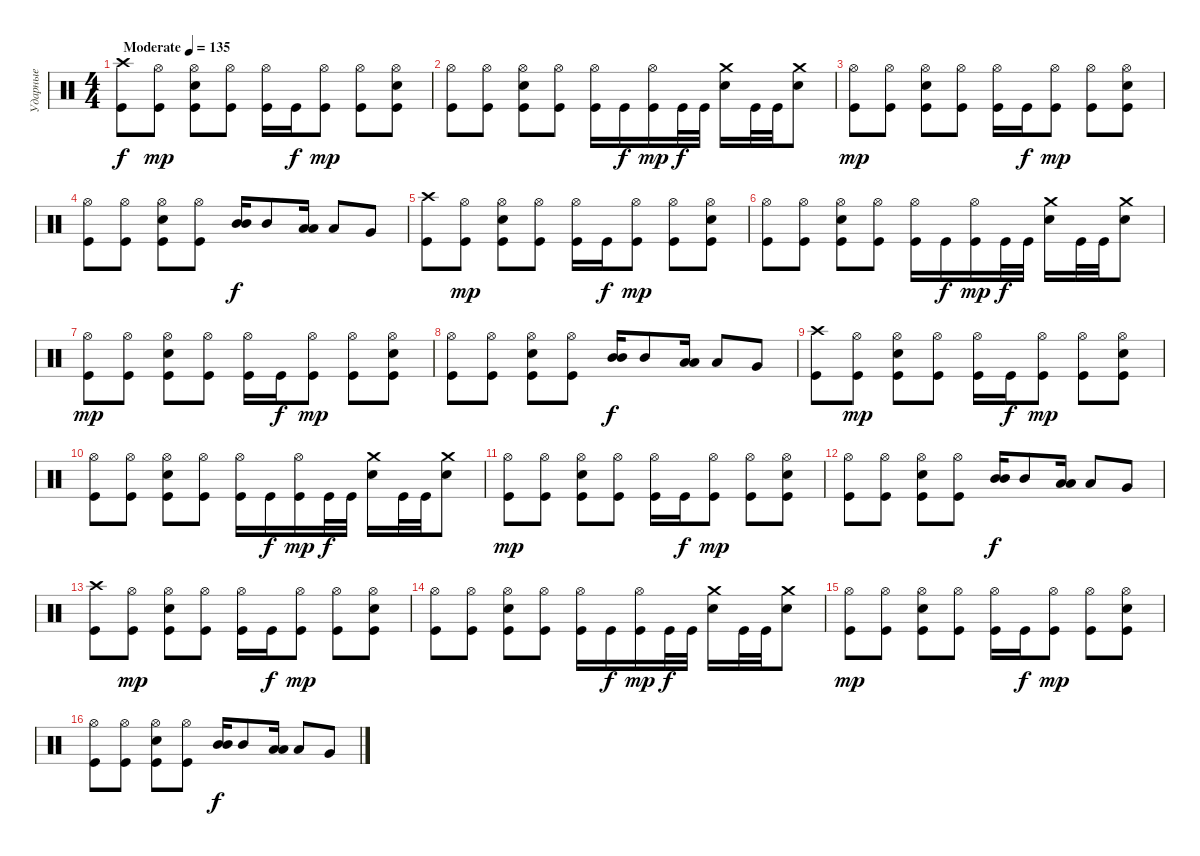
\track ("Ударные" "Ударные") {instrument percussion}
\staff {score}
\articulation defaults
\ts (4 4)
\tempo (135 "Moderate")
\clef neutral
\ks c
("Crash high (hit)" "Kick (hit)").8{dy f} ("Hi-Hat (open)" "Kick (hit)").8{dy mp} ("Hi-Hat (open)" "Electric Snare (hit)" "Kick (hit)").8 ("Hi-Hat (open)" "Kick (hit)").8 ("Hi-Hat (open)" "Kick (hit)").16 "Kick (hit)".16{dy f} ("Hi-Hat (open)" "Kick (hit)").8{dy mp} ("Hi-Hat (open)" "Kick (hit)").8 ("Hi-Hat (open)" "Electric Snare (hit)" "Kick (hit)").8 |
("Hi-Hat (open)" "Kick (hit)").8 ("Hi-Hat (open)" "Kick (hit)").8 ("Hi-Hat (open)" "Electric Snare (hit)" "Kick (hit)").8 ("Hi-Hat (open)" "Kick (hit)").8 ("Hi-Hat (open)" "Kick (hit)").16 "Kick (hit)".16{dy f} ("Hi-Hat (open)" "Kick (hit)").16{dy mp} "Kick (hit)".32{dy f} "Kick (hit)".32 ("Crash medium (hit)" "Electric Snare (hit)").16 "Kick (hit)".32 "Kick (hit)".32 ("Crash medium (hit)" "Electric Snare (hit)").8 |
("Hi-Hat (open)" "Kick (hit)").8{dy mp} ("Hi-Hat (open)" "Kick (hit)").8 ("Hi-Hat (open)" "Electric Snare (hit)" "Kick (hit)").8 ("Hi-Hat (open)" "Kick (hit)").8 ("Hi-Hat (open)" "Kick (hit)").16 "Kick (hit)".16{dy f} ("Hi-Hat (open)" "Kick (hit)").8{dy mp} ("Hi-Hat (open)" "Kick (hit)").8 ("Hi-Hat (open)" "Electric Snare (hit)" "Kick (hit)").8 |
("Hi-Hat (open)" "Kick (hit)").8 ("Hi-Hat (open)" "Kick (hit)").8 ("Hi-Hat (open)" "Electric Snare (hit)" "Kick (hit)").8 ("Hi-Hat (open)" "Kick (hit)").8 ("Mid Tom (hit)" "Mid Tom (hit)").16{bu 60 dy f} "Mid Tom (hit)".8 ("Low Tom (hit)" "Low Tom (hit)").16{bu 60} "Low Tom (hit)".8 "Very Low Tom (hit)".8 |
("Crash high (hit)" "Kick (hit)").8 ("Hi-Hat (open)" "Kick (hit)").8{dy mp} ("Hi-Hat (open)" "Electric Snare (hit)" "Kick (hit)").8 ("Hi-Hat (open)" "Kick (hit)").8 ("Hi-Hat (open)" "Kick (hit)").16 "Kick (hit)".16{dy f} ("Hi-Hat (open)" "Kick (hit)").8{dy mp} ("Hi-Hat (open)" "Kick (hit)").8 ("Hi-Hat (open)" "Electric Snare (hit)" "Kick (hit)").8 |
("Hi-Hat (open)" "Kick (hit)").8 ("Hi-Hat (open)" "Kick (hit)").8 ("Hi-Hat (open)" "Electric Snare (hit)" "Kick (hit)").8 ("Hi-Hat (open)" "Kick (hit)").8 ("Hi-Hat (open)" "Kick (hit)").16 "Kick (hit)".16{dy f} ("Hi-Hat (open)" "Kick (hit)").16{dy mp} "Kick (hit)".32{dy f} "Kick (hit)".32 ("Crash medium (hit)" "Electric Snare (hit)").16 "Kick (hit)".32 "Kick (hit)".32 ("Crash medium (hit)" "Electric Snare (hit)").8 |
("Hi-Hat (open)" "Kick (hit)").8{dy mp} ("Hi-Hat (open)" "Kick (hit)").8 ("Hi-Hat (open)" "Electric Snare (hit)" "Kick (hit)").8 ("Hi-Hat (open)" "Kick (hit)").8 ("Hi-Hat (open)" "Kick (hit)").16 "Kick (hit)".16{dy f} ("Hi-Hat (open)" "Kick (hit)").8{dy mp} ("Hi-Hat (open)" "Kick (hit)").8 ("Hi-Hat (open)" "Electric Snare (hit)" "Kick (hit)").8 |
("Hi-Hat (open)" "Kick (hit)").8 ("Hi-Hat (open)" "Kick (hit)").8 ("Hi-Hat (open)" "Electric Snare (hit)" "Kick (hit)").8 ("Hi-Hat (open)" "Kick (hit)").8 ("Mid Tom (hit)" "Mid Tom (hit)").16{bu 60 dy f} "Mid Tom (hit)".8 ("Low Tom (hit)" "Low Tom (hit)").16{bu 60} "Low Tom (hit)".8 "Very Low Tom (hit)".8 |
("Crash high (hit)" "Kick (hit)").8 ("Hi-Hat (open)" "Kick (hit)").8{dy mp} ("Hi-Hat (open)" "Electric Snare (hit)" "Kick (hit)").8 ("Hi-Hat (open)" "Kick (hit)").8 ("Hi-Hat (open)" "Kick (hit)").16 "Kick (hit)".16{dy f} ("Hi-Hat (open)" "Kick (hit)").8{dy mp} ("Hi-Hat (open)" "Kick (hit)").8 ("Hi-Hat (open)" "Electric Snare (hit)" "Kick (hit)").8 |
("Hi-Hat (open)" "Kick (hit)").8 ("Hi-Hat (open)" "Kick (hit)").8 ("Hi-Hat (open)" "Electric Snare (hit)" "Kick (hit)").8 ("Hi-Hat (open)" "Kick (hit)").8 ("Hi-Hat (open)" "Kick (hit)").16 "Kick (hit)".16{dy f} ("Hi-Hat (open)" "Kick (hit)").16{dy mp} "Kick (hit)".32{dy f} "Kick (hit)".32 ("Crash medium (hit)" "Electric Snare (hit)").16 "Kick (hit)".32 "Kick (hit)".32 ("Crash medium (hit)" "Electric Snare (hit)").8 |
("Hi-Hat (open)" "Kick (hit)").8{dy mp} ("Hi-Hat (open)" "Kick (hit)").8 ("Hi-Hat (open)" "Electric Snare (hit)" "Kick (hit)").8 ("Hi-Hat (open)" "Kick (hit)").8 ("Hi-Hat (open)" "Kick (hit)").16 "Kick (hit)".16{dy f} ("Hi-Hat (open)" "Kick (hit)").8{dy mp} ("Hi-Hat (open)" "Kick (hit)").8 ("Hi-Hat (open)" "Electric Snare (hit)" "Kick (hit)").8 |
("Hi-Hat (open)" "Kick (hit)").8 ("Hi-Hat (open)" "Kick (hit)").8 ("Hi-Hat (open)" "Electric Snare (hit)" "Kick (hit)").8 ("Hi-Hat (open)" "Kick (hit)").8 ("Mid Tom (hit)" "Mid Tom (hit)").16{bu 60 dy f} "Mid Tom (hit)".8 ("Low Tom (hit)" "Low Tom (hit)").16{bu 60} "Low Tom (hit)".8 "Very Low Tom (hit)".8 |
("Crash high (hit)" "Kick (hit)").8 ("Hi-Hat (open)" "Kick (hit)").8{dy mp} ("Hi-Hat (open)" "Electric Snare (hit)" "Kick (hit)").8 ("Hi-Hat (open)" "Kick (hit)").8 ("Hi-Hat (open)" "Kick (hit)").16 "Kick (hit)".16{dy f} ("Hi-Hat (open)" "Kick (hit)").8{dy mp} ("Hi-Hat (open)" "Kick (hit)").8 ("Hi-Hat (open)" "Electric Snare (hit)" "Kick (hit)").8 |
("Hi-Hat (open)" "Kick (hit)").8 ("Hi-Hat (open)" "Kick (hit)").8 ("Hi-Hat (open)" "Electric Snare (hit)" "Kick (hit)").8 ("Hi-Hat (open)" "Kick (hit)").8 ("Hi-Hat (open)" "Kick (hit)").16 "Kick (hit)".16{dy f} ("Hi-Hat (open)" "Kick (hit)").16{dy mp} "Kick (hit)".32{dy f} "Kick (hit)".32 ("Crash medium (hit)" "Electric Snare (hit)").16 "Kick (hit)".32 "Kick (hit)".32 ("Crash medium (hit)" "Electric Snare (hit)").8 |
("Hi-Hat (open)" "Kick (hit)").8{dy mp} ("Hi-Hat (open)" "Kick (hit)").8 ("Hi-Hat (open)" "Electric Snare (hit)" "Kick (hit)").8 ("Hi-Hat (open)" "Kick (hit)").8 ("Hi-Hat (open)" "Kick (hit)").16 "Kick (hit)".16{dy f} ("Hi-Hat (open)" "Kick (hit)").8{dy mp} ("Hi-Hat (open)" "Kick (hit)").8 ("Hi-Hat (open)" "Electric Snare (hit)" "Kick (hit)").8 |
("Hi-Hat (open)" "Kick (hit)").8 ("Hi-Hat (open)" "Kick (hit)").8 ("Hi-Hat (open)" "Electric Snare (hit)" "Kick (hit)").8 ("Hi-Hat (open)" "Kick (hit)").8 ("Mid Tom (hit)" "Mid Tom (hit)").16{bu 60 dy f} "Mid Tom (hit)".8 ("Low Tom (hit)" "Low Tom (hit)").16{bu 60} "Low Tom (hit)".8 "Very Low Tom (hit)".8
